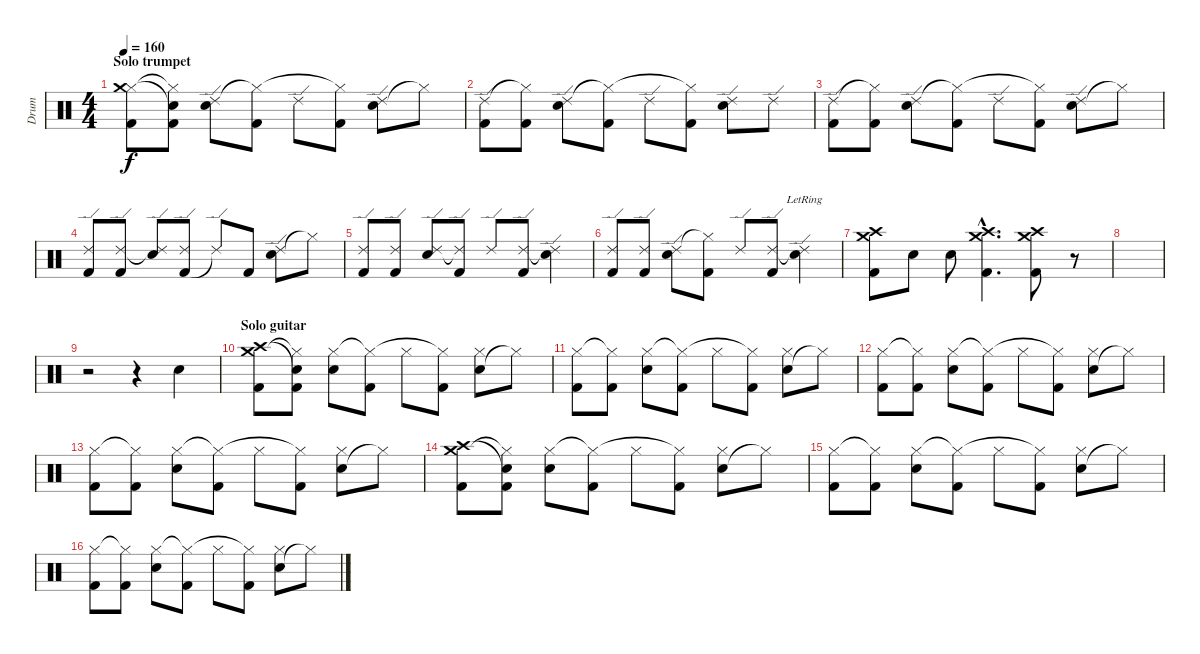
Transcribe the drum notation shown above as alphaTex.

\track ("Drum" "Drum") {instrument percussion}
\staff {score}
\articulation defaults
\ts (4 4)
\section ("" "Solo trumpet")
\tempo 160
\clef neutral
\ks c
("Kick (hit) 2" "Hi-Hat (closed)" "Crash medium (hit)").8{dy f} ("Kick (hit) 2" "Electric Snare (hit)"{t} "Hi-Hat (closed)"{t}).8 ("Electric Snare (hit)" "Ride (edge) 2").8 ("Kick (hit) 2" "Hi-Hat (closed)"{t}).8 "Ride (edge) 2".8 ("Kick (hit) 2" "Hi-Hat (closed)"{t}).8 ("Electric Snare (hit)" "Ride (edge) 2").8 "Hi-Hat (closed)"{t}.8 |
("Kick (hit) 2" "Ride (edge) 2").8 ("Kick (hit) 2" "Hi-Hat (closed)"{t}).8 ("Electric Snare (hit)" "Ride (edge) 2").8 ("Kick (hit) 2" "Hi-Hat (closed)"{t}).8 "Ride (edge) 2".8 ("Kick (hit) 2" "Hi-Hat (closed)"{t}).8 ("Electric Snare (hit)" "Ride (edge) 2").8 "Ride (edge) 2".8 |
("Kick (hit) 2" "Ride (edge) 2").8 ("Kick (hit) 2" "Hi-Hat (closed)"{t}).8 ("Electric Snare (hit)" "Ride (edge) 2").8 ("Kick (hit) 2" "Hi-Hat (closed)"{t}).8 "Ride (edge) 2".8 ("Kick (hit) 2" "Hi-Hat (closed)"{t}).8 ("Electric Snare (hit)" "Ride (edge) 2").8 "Hi-Hat (closed)"{t}.8 |
("Kick (hit) 2" "Ride (edge) 2").8 ("Kick (hit) 2" "Ride (edge) 2").8 ("Electric Snare (hit)" "Ride (edge) 2"{t}).8 ("Kick (hit) 2" "Ride (edge) 2").8 "Ride (edge) 2"{t}.8 "Kick (hit) 2".8 ("Electric Snare (hit)" "Ride (edge) 2").8 "Hi-Hat (closed)"{t}.8 |
("Kick (hit) 2" "Ride (edge) 2").8 ("Kick (hit) 2" "Ride (edge) 2").8 ("Electric Snare (hit)" "Ride (edge) 2").8 ("Kick (hit) 2" "Ride (edge) 2"{t}).8 "Ride (edge) 2".8 ("Kick (hit) 2" "Ride (edge) 2").8 ("Electric Snare (hit)" "Ride (edge) 2"{t}).4 |
("Kick (hit) 2" "Ride (edge) 2").8 ("Kick (hit) 2" "Ride (edge) 2").8 ("Electric Snare (hit)" "Ride (edge) 2").8 ("Kick (hit) 2" "Hi-Hat (closed)"{t}).8 "Ride (edge) 2".8 ("Kick (hit) 2" "Ride (edge) 2").8 ("Electric Snare (hit)"{lr} "Ride (edge) 2"{t}).4 |
("Kick (hit) 2" "Crash high (hit)" "Crash medium (hit)").8 "Electric Snare (hit)".8 "Electric Snare (hit)".8 ("Kick (hit) 2"{hac} "Crash high (hit)"{hac} "Crash medium (hit)"{hac}).4{d} ("Kick (hit) 2" "Crash high (hit)" "Crash medium (hit)").8 r.8 |
|
r.2 r.4 "Electric Snare (hit)".4 |
\section ("" "Solo guitar")
("Kick (hit) 2" "Crash high (hit)" "Crash medium (hit)").8 ("Kick (hit) 2" "Electric Snare (hit)"{t} "Hi-Hat (closed)"{t}).8 ("Electric Snare (hit)" "Hi-Hat (closed)").8 ("Kick (hit) 2" "Hi-Hat (closed)"{t}).8 "Hi-Hat (closed)".8 ("Kick (hit) 2" "Hi-Hat (closed)"{t}).8 ("Electric Snare (hit)" "Hi-Hat (closed)").8 "Hi-Hat (closed)"{t}.8 |
("Kick (hit) 2" "Hi-Hat (closed)").8 ("Kick (hit) 2" "Hi-Hat (closed)"{t}).8 ("Electric Snare (hit)" "Hi-Hat (closed)").8 ("Kick (hit) 2" "Hi-Hat (closed)"{t}).8 "Hi-Hat (closed)".8 ("Kick (hit) 2" "Hi-Hat (closed)"{t}).8 ("Electric Snare (hit)" "Hi-Hat (closed)").8 "Hi-Hat (closed)"{t}.8 |
("Kick (hit) 2" "Hi-Hat (closed)").8 ("Kick (hit) 2" "Hi-Hat (closed)"{t}).8 ("Electric Snare (hit)" "Hi-Hat (closed)").8 ("Kick (hit) 2" "Hi-Hat (closed)"{t}).8 "Hi-Hat (closed)".8 ("Kick (hit) 2" "Hi-Hat (closed)"{t}).8 ("Electric Snare (hit)" "Hi-Hat (closed)").8 "Hi-Hat (closed)"{t}.8 |
("Kick (hit) 2" "Hi-Hat (closed)").8 ("Kick (hit) 2" "Hi-Hat (closed)"{t}).8 ("Electric Snare (hit)" "Hi-Hat (closed)").8 ("Kick (hit) 2" "Hi-Hat (closed)"{t}).8 "Hi-Hat (closed)".8 ("Kick (hit) 2" "Hi-Hat (closed)"{t}).8 ("Electric Snare (hit)" "Hi-Hat (closed)").8 "Hi-Hat (closed)"{t}.8 |
("Kick (hit) 2" "Crash high (hit)" "Crash medium (hit)").8 ("Kick (hit) 2" "Electric Snare (hit)"{t} "Hi-Hat (closed)"{t}).8 ("Electric Snare (hit)" "Hi-Hat (closed)").8 ("Kick (hit) 2" "Hi-Hat (closed)"{t}).8 "Hi-Hat (closed)".8 ("Kick (hit) 2" "Hi-Hat (closed)"{t}).8 ("Electric Snare (hit)" "Hi-Hat (closed)").8 "Hi-Hat (closed)"{t}.8 |
("Kick (hit) 2" "Hi-Hat (closed)").8 ("Kick (hit) 2" "Hi-Hat (closed)"{t}).8 ("Electric Snare (hit)" "Hi-Hat (closed)").8 ("Kick (hit) 2" "Hi-Hat (closed)"{t}).8 "Hi-Hat (closed)".8 ("Kick (hit) 2" "Hi-Hat (closed)"{t}).8 ("Electric Snare (hit)" "Hi-Hat (closed)").8 "Hi-Hat (closed)"{t}.8 |
("Kick (hit) 2" "Hi-Hat (closed)").8 ("Kick (hit) 2" "Hi-Hat (closed)"{t}).8 ("Electric Snare (hit)" "Hi-Hat (closed)").8 ("Kick (hit) 2" "Hi-Hat (closed)"{t}).8 "Hi-Hat (closed)".8 ("Kick (hit) 2" "Hi-Hat (closed)"{t}).8 ("Electric Snare (hit)" "Hi-Hat (closed)").8 "Hi-Hat (closed)"{t}.8
